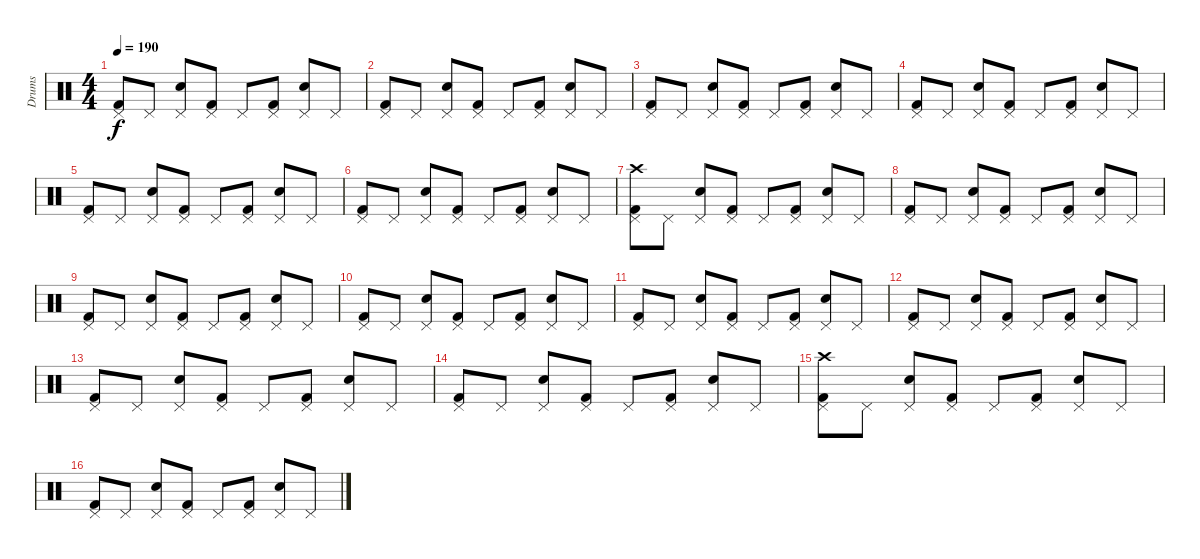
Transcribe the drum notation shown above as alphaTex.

\track ("Drums" "Drums") {instrument percussion}
\staff {score}
\articulation defaults
\ts (4 4)
\tempo 190
\clef neutral
\ks c
("Kick (hit) 2" "Pedal Hi-Hat (hit)").8{dy f} "Pedal Hi-Hat (hit)".8 ("Snare (hit) 2" "Pedal Hi-Hat (hit)").8 ("Kick (hit) 2" "Pedal Hi-Hat (hit)").8 "Pedal Hi-Hat (hit)".8 ("Kick (hit) 2" "Pedal Hi-Hat (hit)").8 ("Snare (hit) 2" "Pedal Hi-Hat (hit)").8 "Pedal Hi-Hat (hit)".8 |
("Kick (hit) 2" "Pedal Hi-Hat (hit)").8 "Pedal Hi-Hat (hit)".8 ("Snare (hit) 2" "Pedal Hi-Hat (hit)").8 ("Kick (hit) 2" "Pedal Hi-Hat (hit)").8 "Pedal Hi-Hat (hit)".8 ("Kick (hit) 2" "Pedal Hi-Hat (hit)").8 ("Snare (hit) 2" "Pedal Hi-Hat (hit)").8 "Pedal Hi-Hat (hit)".8 |
("Kick (hit) 2" "Pedal Hi-Hat (hit)").8 "Pedal Hi-Hat (hit)".8 ("Snare (hit) 2" "Pedal Hi-Hat (hit)").8 ("Kick (hit) 2" "Pedal Hi-Hat (hit)").8 "Pedal Hi-Hat (hit)".8 ("Kick (hit) 2" "Pedal Hi-Hat (hit)").8 ("Snare (hit) 2" "Pedal Hi-Hat (hit)").8 "Pedal Hi-Hat (hit)".8 |
("Kick (hit) 2" "Pedal Hi-Hat (hit)").8 "Pedal Hi-Hat (hit)".8 ("Snare (hit) 2" "Pedal Hi-Hat (hit)").8 ("Kick (hit) 2" "Pedal Hi-Hat (hit)").8 "Pedal Hi-Hat (hit)".8 ("Kick (hit) 2" "Pedal Hi-Hat (hit)").8 ("Snare (hit) 2" "Pedal Hi-Hat (hit)").8 "Pedal Hi-Hat (hit)".8 |
("Kick (hit) 2" "Pedal Hi-Hat (hit)").8 "Pedal Hi-Hat (hit)".8 ("Snare (hit) 2" "Pedal Hi-Hat (hit)").8 ("Kick (hit) 2" "Pedal Hi-Hat (hit)").8 "Pedal Hi-Hat (hit)".8 ("Kick (hit) 2" "Pedal Hi-Hat (hit)").8 ("Snare (hit) 2" "Pedal Hi-Hat (hit)").8 "Pedal Hi-Hat (hit)".8 |
("Kick (hit) 2" "Pedal Hi-Hat (hit)").8 "Pedal Hi-Hat (hit)".8 ("Snare (hit) 2" "Pedal Hi-Hat (hit)").8 ("Kick (hit) 2" "Pedal Hi-Hat (hit)").8 "Pedal Hi-Hat (hit)".8 ("Kick (hit) 2" "Pedal Hi-Hat (hit)").8 ("Snare (hit) 2" "Pedal Hi-Hat (hit)").8 "Pedal Hi-Hat (hit)".8 |
("Kick (hit) 2" "Pedal Hi-Hat (hit)" "Crash high (hit)").8 "Pedal Hi-Hat (hit)".8 ("Snare (hit) 2" "Pedal Hi-Hat (hit)").8 ("Kick (hit) 2" "Pedal Hi-Hat (hit)").8 "Pedal Hi-Hat (hit)".8 ("Kick (hit) 2" "Pedal Hi-Hat (hit)").8 ("Snare (hit) 2" "Pedal Hi-Hat (hit)").8 "Pedal Hi-Hat (hit)".8 |
("Kick (hit) 2" "Pedal Hi-Hat (hit)").8 "Pedal Hi-Hat (hit)".8 ("Snare (hit) 2" "Pedal Hi-Hat (hit)").8 ("Kick (hit) 2" "Pedal Hi-Hat (hit)").8 "Pedal Hi-Hat (hit)".8 ("Kick (hit) 2" "Pedal Hi-Hat (hit)").8 ("Snare (hit) 2" "Pedal Hi-Hat (hit)").8 "Pedal Hi-Hat (hit)".8 |
("Kick (hit) 2" "Pedal Hi-Hat (hit)").8 "Pedal Hi-Hat (hit)".8 ("Snare (hit) 2" "Pedal Hi-Hat (hit)").8 ("Kick (hit) 2" "Pedal Hi-Hat (hit)").8 "Pedal Hi-Hat (hit)".8 ("Kick (hit) 2" "Pedal Hi-Hat (hit)").8 ("Snare (hit) 2" "Pedal Hi-Hat (hit)").8 "Pedal Hi-Hat (hit)".8 |
("Kick (hit) 2" "Pedal Hi-Hat (hit)").8 "Pedal Hi-Hat (hit)".8 ("Snare (hit) 2" "Pedal Hi-Hat (hit)").8 ("Kick (hit) 2" "Pedal Hi-Hat (hit)").8 "Pedal Hi-Hat (hit)".8 ("Kick (hit) 2" "Pedal Hi-Hat (hit)").8 ("Snare (hit) 2" "Pedal Hi-Hat (hit)").8 "Pedal Hi-Hat (hit)".8 |
("Kick (hit) 2" "Pedal Hi-Hat (hit)").8 "Pedal Hi-Hat (hit)".8 ("Snare (hit) 2" "Pedal Hi-Hat (hit)").8 ("Kick (hit) 2" "Pedal Hi-Hat (hit)").8 "Pedal Hi-Hat (hit)".8 ("Kick (hit) 2" "Pedal Hi-Hat (hit)").8 ("Snare (hit) 2" "Pedal Hi-Hat (hit)").8 "Pedal Hi-Hat (hit)".8 |
("Kick (hit) 2" "Pedal Hi-Hat (hit)").8 "Pedal Hi-Hat (hit)".8 ("Snare (hit) 2" "Pedal Hi-Hat (hit)").8 ("Kick (hit) 2" "Pedal Hi-Hat (hit)").8 "Pedal Hi-Hat (hit)".8 ("Kick (hit) 2" "Pedal Hi-Hat (hit)").8 ("Snare (hit) 2" "Pedal Hi-Hat (hit)").8 "Pedal Hi-Hat (hit)".8 |
("Kick (hit) 2" "Pedal Hi-Hat (hit)").8 "Pedal Hi-Hat (hit)".8 ("Snare (hit) 2" "Pedal Hi-Hat (hit)").8 ("Kick (hit) 2" "Pedal Hi-Hat (hit)").8 "Pedal Hi-Hat (hit)".8 ("Kick (hit) 2" "Pedal Hi-Hat (hit)").8 ("Snare (hit) 2" "Pedal Hi-Hat (hit)").8 "Pedal Hi-Hat (hit)".8 |
("Kick (hit) 2" "Pedal Hi-Hat (hit)").8 "Pedal Hi-Hat (hit)".8 ("Snare (hit) 2" "Pedal Hi-Hat (hit)").8 ("Kick (hit) 2" "Pedal Hi-Hat (hit)").8 "Pedal Hi-Hat (hit)".8 ("Kick (hit) 2" "Pedal Hi-Hat (hit)").8 ("Snare (hit) 2" "Pedal Hi-Hat (hit)").8 "Pedal Hi-Hat (hit)".8 |
("Kick (hit) 2" "Pedal Hi-Hat (hit)" "Crash high (hit)").8 "Pedal Hi-Hat (hit)".8 ("Snare (hit) 2" "Pedal Hi-Hat (hit)").8 ("Kick (hit) 2" "Pedal Hi-Hat (hit)").8 "Pedal Hi-Hat (hit)".8 ("Kick (hit) 2" "Pedal Hi-Hat (hit)").8 ("Snare (hit) 2" "Pedal Hi-Hat (hit)").8 "Pedal Hi-Hat (hit)".8 |
("Kick (hit) 2" "Pedal Hi-Hat (hit)").8 "Pedal Hi-Hat (hit)".8 ("Snare (hit) 2" "Pedal Hi-Hat (hit)").8 ("Kick (hit) 2" "Pedal Hi-Hat (hit)").8 "Pedal Hi-Hat (hit)".8 ("Kick (hit) 2" "Pedal Hi-Hat (hit)").8 ("Snare (hit) 2" "Pedal Hi-Hat (hit)").8 "Pedal Hi-Hat (hit)".8
